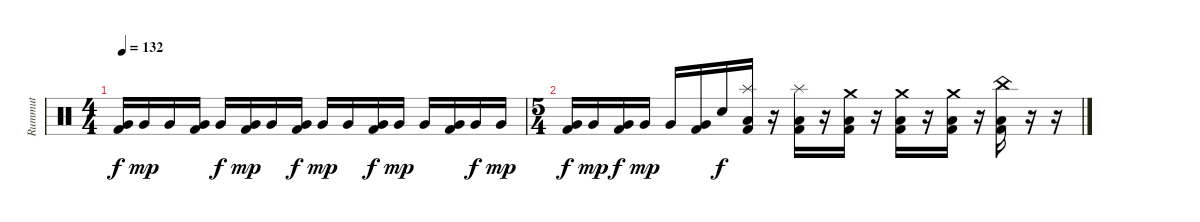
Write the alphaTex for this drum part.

\track ("Rummut" "Rummut") {instrument percussion}
\staff {score}
\articulation defaults
\ts (4 4)
\tempo 132
\clef neutral
\ks c
("Very Low Tom (hit)" "Kick (hit) 2").16{dy f} "Very Low Tom (hit)".16{dy mp} "Very Low Tom (hit)".16 ("Very Low Tom (hit)" "Kick (hit) 2").16 "Very Low Tom (hit)".16{dy f} ("Very Low Tom (hit)" "Kick (hit) 2").16{dy mp} "Very Low Tom (hit)".16 ("Very Low Tom (hit)" "Kick (hit) 2").16{dy f} "Very Low Tom (hit)".16{dy mp} "Very Low Tom (hit)".16 ("Very Low Tom (hit)" "Kick (hit) 2").16{dy f} "Very Low Tom (hit)".16{dy mp} "Very Low Tom (hit)".16 ("Very Low Tom (hit)" "Kick (hit) 2").16 "Very Low Tom (hit)".16{dy f} "Very Low Tom (hit)".16{dy mp} |
\ts (5 4)
("Very Low Tom (hit)" "Kick (hit) 2").16{dy f} "Very Low Tom (hit)".16{dy mp} ("Very Low Tom (hit)" "Kick (hit) 2").16{dy f} "Very Low Tom (hit)".16{dy mp} "Very Low Tom (hit)".16 ("Very Low Tom (hit)" "Kick (hit) 2").16 "Electric Snare (hit)".16{dy f} ("Splash (hit)" "Low Floor Tom (hit)" "Kick (hit) 2").16 r.16 ("Splash (hit)" "Low Floor Tom (hit)" "Kick (hit) 2").16 r.16 ("Crash medium (hit)" "Low Floor Tom (hit)" "Kick (hit) 2").16 r.16 ("Crash medium (hit)" "Low Floor Tom (hit)" "Kick (hit) 2").16 r.16 ("Crash medium (hit)" "Low Floor Tom (hit)" "Kick (hit) 2").16 r.16 ("China (hit)" "Low Floor Tom (hit)" "Kick (hit) 2").16 r.16 r.16
